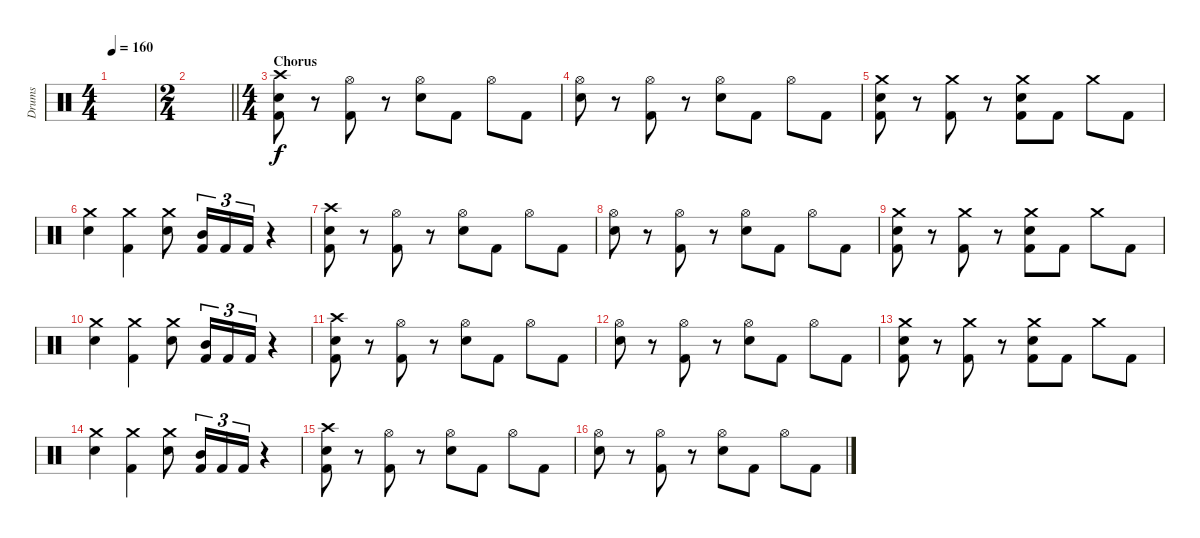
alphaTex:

\track ("Drums" "Drums") {instrument percussion}
\staff {score}
\articulation defaults
\ts (4 4)
\tempo 160
\clef neutral
\ks c
|
\ts (2 4)
\barLineRight lightlight
|
\ts (4 4)
\section ("" "Chorus")
("Crash high (hit)" "Electric Snare (hit)" "Kick (hit) 2").8{dy f} r.8 ("Hi-Hat (open)" "Kick (hit) 2").8 r.8 ("Hi-Hat (open)" "Electric Snare (hit)").8 "Kick (hit) 2".8 "Hi-Hat (open)".8 "Kick (hit) 2".8 |
("Hi-Hat (open)" "Electric Snare (hit)").8 r.8 ("Hi-Hat (open)" "Kick (hit) 2").8 r.8 ("Hi-Hat (open)" "Electric Snare (hit)").8 "Kick (hit) 2".8 "Hi-Hat (open)".8 "Kick (hit) 2".8 |
("Crash medium (hit)" "Electric Snare (hit)" "Kick (hit) 2").8 r.8 ("Crash medium (hit)" "Kick (hit) 2").8 r.8 ("Crash medium (hit)" "Electric Snare (hit)" "Kick (hit) 2").8 "Kick (hit) 2".8 "Crash medium (hit)".8 "Kick (hit) 2".8 |
("Crash medium (hit)" "Electric Snare (hit)").4 ("Crash medium (hit)" "Kick (hit) 2").4 ("Crash medium (hit)" "Electric Snare (hit)").8 ("Mid Tom (hit)" "Kick (hit) 2").16{tu (3 2)} "Kick (hit) 2".16{tu (3 2)} "Kick (hit) 2".16{tu (3 2)} r.4 |
("Crash high (hit)" "Electric Snare (hit)" "Kick (hit) 2").8 r.8 ("Hi-Hat (open)" "Kick (hit) 2").8 r.8 ("Hi-Hat (open)" "Electric Snare (hit)").8 "Kick (hit) 2".8 "Hi-Hat (open)".8 "Kick (hit) 2".8 |
("Hi-Hat (open)" "Electric Snare (hit)").8 r.8 ("Hi-Hat (open)" "Kick (hit) 2").8 r.8 ("Hi-Hat (open)" "Electric Snare (hit)").8 "Kick (hit) 2".8 "Hi-Hat (open)".8 "Kick (hit) 2".8 |
("Crash medium (hit)" "Electric Snare (hit)" "Kick (hit) 2").8 r.8 ("Crash medium (hit)" "Kick (hit) 2").8 r.8 ("Crash medium (hit)" "Electric Snare (hit)" "Kick (hit) 2").8 "Kick (hit) 2".8 "Crash medium (hit)".8 "Kick (hit) 2".8 |
("Crash medium (hit)" "Electric Snare (hit)").4 ("Crash medium (hit)" "Kick (hit) 2").4 ("Crash medium (hit)" "Electric Snare (hit)").8 ("Mid Tom (hit)" "Kick (hit) 2").16{tu (3 2)} "Kick (hit) 2".16{tu (3 2)} "Kick (hit) 2".16{tu (3 2)} r.4 |
("Crash high (hit)" "Electric Snare (hit)" "Kick (hit) 2").8 r.8 ("Hi-Hat (open)" "Kick (hit) 2").8 r.8 ("Hi-Hat (open)" "Electric Snare (hit)").8 "Kick (hit) 2".8 "Hi-Hat (open)".8 "Kick (hit) 2".8 |
("Hi-Hat (open)" "Electric Snare (hit)").8 r.8 ("Hi-Hat (open)" "Kick (hit) 2").8 r.8 ("Hi-Hat (open)" "Electric Snare (hit)").8 "Kick (hit) 2".8 "Hi-Hat (open)".8 "Kick (hit) 2".8 |
("Crash medium (hit)" "Electric Snare (hit)" "Kick (hit) 2").8 r.8 ("Crash medium (hit)" "Kick (hit) 2").8 r.8 ("Crash medium (hit)" "Electric Snare (hit)" "Kick (hit) 2").8 "Kick (hit) 2".8 "Crash medium (hit)".8 "Kick (hit) 2".8 |
("Crash medium (hit)" "Electric Snare (hit)").4 ("Crash medium (hit)" "Kick (hit) 2").4 ("Crash medium (hit)" "Electric Snare (hit)").8 ("Mid Tom (hit)" "Kick (hit) 2").16{tu (3 2)} "Kick (hit) 2".16{tu (3 2)} "Kick (hit) 2".16{tu (3 2)} r.4 |
("Crash high (hit)" "Electric Snare (hit)" "Kick (hit) 2").8 r.8 ("Hi-Hat (open)" "Kick (hit) 2").8 r.8 ("Hi-Hat (open)" "Electric Snare (hit)").8 "Kick (hit) 2".8 "Hi-Hat (open)".8 "Kick (hit) 2".8 |
("Hi-Hat (open)" "Electric Snare (hit)").8 r.8 ("Hi-Hat (open)" "Kick (hit) 2").8 r.8 ("Hi-Hat (open)" "Electric Snare (hit)").8 "Kick (hit) 2".8 "Hi-Hat (open)".8 "Kick (hit) 2".8
